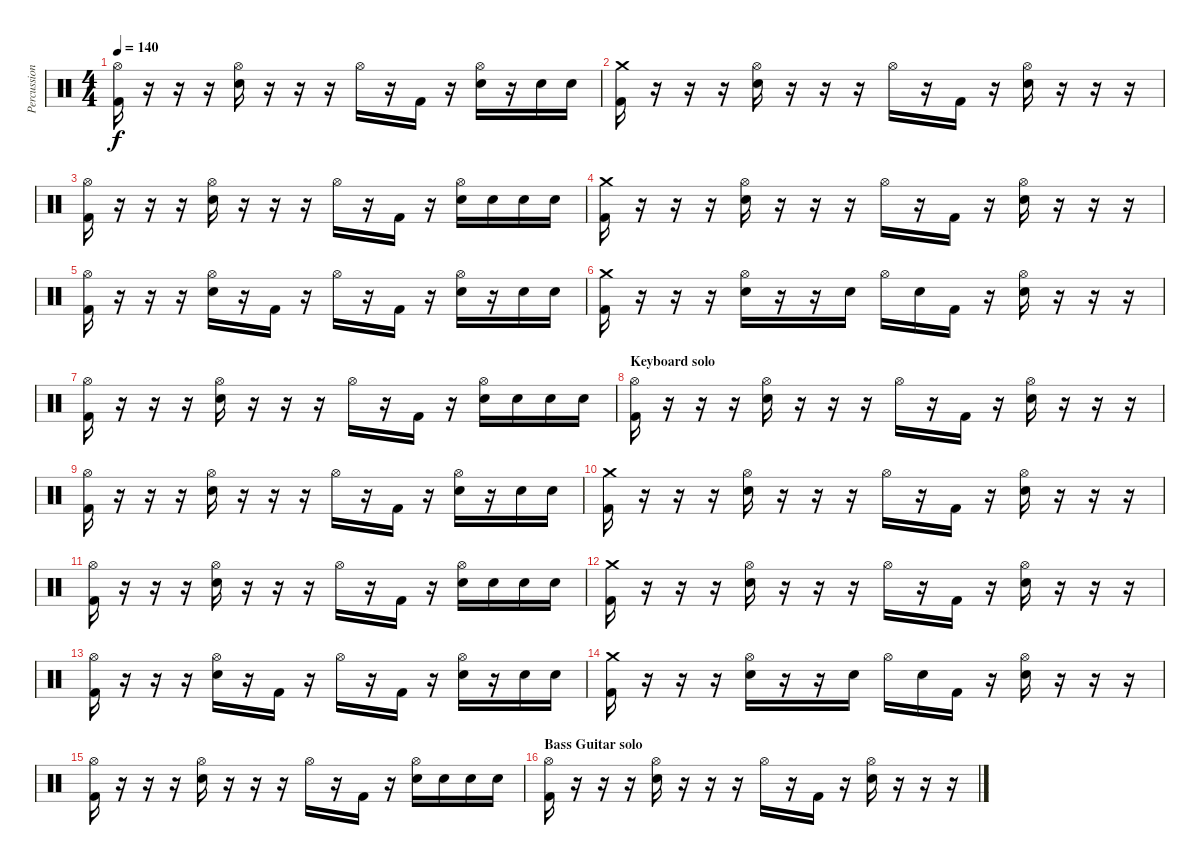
\track ("Percussion" "Percussion") {instrument percussion}
\staff {score}
\articulation defaults
\ts (4 4)
\tempo 140
\clef neutral
\ks c
("Hi-Hat (open)" "Kick (hit) 2").16{dy f} r.16 r.16 r.16 ("Hi-Hat (open)" "Snare (hit) 2").16 r.16 r.16 r.16 "Hi-Hat (open)".16 r.16 "Kick (hit) 2".16 r.16 ("Hi-Hat (open)" "Snare (hit) 2").16 r.16 "Snare (hit) 2".16 "Snare (hit) 2".16 |
("Crash medium (hit)" "Kick (hit) 2").16 r.16 r.16 r.16 ("Hi-Hat (open)" "Snare (hit) 2").16 r.16 r.16 r.16 "Hi-Hat (open)".16 r.16 "Kick (hit) 2".16 r.16 ("Hi-Hat (open)" "Snare (hit) 2").16 r.16 r.16 r.16 |
("Hi-Hat (open)" "Kick (hit) 2").16 r.16 r.16 r.16 ("Hi-Hat (open)" "Snare (hit) 2").16 r.16 r.16 r.16 "Hi-Hat (open)".16 r.16 "Kick (hit) 2".16 r.16 ("Hi-Hat (open)" "Snare (hit) 2").16 "Snare (hit) 2".16 "Snare (hit) 2".16 "Snare (hit) 2".16 |
("Crash medium (hit)" "Kick (hit) 2").16 r.16 r.16 r.16 ("Hi-Hat (open)" "Snare (hit) 2").16 r.16 r.16 r.16 "Hi-Hat (open)".16 r.16 "Kick (hit) 2".16 r.16 ("Hi-Hat (open)" "Snare (hit) 2").16 r.16 r.16 r.16 |
("Hi-Hat (open)" "Kick (hit) 2").16 r.16 r.16 r.16 ("Hi-Hat (open)" "Snare (hit) 2").16 r.16 "Kick (hit) 2".16 r.16 "Hi-Hat (open)".16 r.16 "Kick (hit) 2".16 r.16 ("Hi-Hat (open)" "Snare (hit) 2").16 r.16 "Snare (hit) 2".16 "Snare (hit) 2".16 |
("Crash medium (hit)" "Kick (hit) 2").16 r.16 r.16 r.16 ("Hi-Hat (open)" "Snare (hit) 2").16 r.16 r.16 "Snare (hit) 2".16 "Hi-Hat (open)".16 "Snare (hit) 2".16 "Kick (hit) 2".16 r.16 ("Hi-Hat (open)" "Snare (hit) 2").16 r.16 r.16 r.16 |
("Hi-Hat (open)" "Kick (hit) 2").16 r.16 r.16 r.16 ("Hi-Hat (open)" "Snare (hit) 2").16 r.16 r.16 r.16 "Hi-Hat (open)".16 r.16 "Kick (hit) 2".16 r.16 ("Hi-Hat (open)" "Snare (hit) 2").16 "Snare (hit) 2".16 "Snare (hit) 2".16 "Snare (hit) 2".16 |
\section ("" "Keyboard solo")
("Hi-Hat (open)" "Kick (hit) 2").16 r.16 r.16 r.16 ("Hi-Hat (open)" "Snare (hit) 2").16 r.16 r.16 r.16 "Hi-Hat (open)".16 r.16 "Kick (hit) 2".16 r.16 ("Hi-Hat (open)" "Snare (hit) 2").16 r.16 r.16 r.16 |
("Hi-Hat (open)" "Kick (hit) 2").16 r.16 r.16 r.16 ("Hi-Hat (open)" "Snare (hit) 2").16 r.16 r.16 r.16 "Hi-Hat (open)".16 r.16 "Kick (hit) 2".16 r.16 ("Hi-Hat (open)" "Snare (hit) 2").16 r.16 "Snare (hit) 2".16 "Snare (hit) 2".16 |
("Crash medium (hit)" "Kick (hit) 2").16 r.16 r.16 r.16 ("Hi-Hat (open)" "Snare (hit) 2").16 r.16 r.16 r.16 "Hi-Hat (open)".16 r.16 "Kick (hit) 2".16 r.16 ("Hi-Hat (open)" "Snare (hit) 2").16 r.16 r.16 r.16 |
("Hi-Hat (open)" "Kick (hit) 2").16 r.16 r.16 r.16 ("Hi-Hat (open)" "Snare (hit) 2").16 r.16 r.16 r.16 "Hi-Hat (open)".16 r.16 "Kick (hit) 2".16 r.16 ("Hi-Hat (open)" "Snare (hit) 2").16 "Snare (hit) 2".16 "Snare (hit) 2".16 "Snare (hit) 2".16 |
("Crash medium (hit)" "Kick (hit) 2").16 r.16 r.16 r.16 ("Hi-Hat (open)" "Snare (hit) 2").16 r.16 r.16 r.16 "Hi-Hat (open)".16 r.16 "Kick (hit) 2".16 r.16 ("Hi-Hat (open)" "Snare (hit) 2").16 r.16 r.16 r.16 |
("Hi-Hat (open)" "Kick (hit) 2").16 r.16 r.16 r.16 ("Hi-Hat (open)" "Snare (hit) 2").16 r.16 "Kick (hit) 2".16 r.16 "Hi-Hat (open)".16 r.16 "Kick (hit) 2".16 r.16 ("Hi-Hat (open)" "Snare (hit) 2").16 r.16 "Snare (hit) 2".16 "Snare (hit) 2".16 |
("Crash medium (hit)" "Kick (hit) 2").16 r.16 r.16 r.16 ("Hi-Hat (open)" "Snare (hit) 2").16 r.16 r.16 "Snare (hit) 2".16 "Hi-Hat (open)".16 "Snare (hit) 2".16 "Kick (hit) 2".16 r.16 ("Hi-Hat (open)" "Snare (hit) 2").16 r.16 r.16 r.16 |
("Hi-Hat (open)" "Kick (hit) 2").16 r.16 r.16 r.16 ("Hi-Hat (open)" "Snare (hit) 2").16 r.16 r.16 r.16 "Hi-Hat (open)".16 r.16 "Kick (hit) 2".16 r.16 ("Hi-Hat (open)" "Snare (hit) 2").16 "Snare (hit) 2".16 "Snare (hit) 2".16 "Snare (hit) 2".16 |
\section ("" "Bass Guitar solo")
("Hi-Hat (open)" "Kick (hit) 2").16 r.16 r.16 r.16 ("Hi-Hat (open)" "Snare (hit) 2").16 r.16 r.16 r.16 "Hi-Hat (open)".16 r.16 "Kick (hit) 2".16 r.16 ("Hi-Hat (open)" "Snare (hit) 2").16 r.16 r.16 r.16
